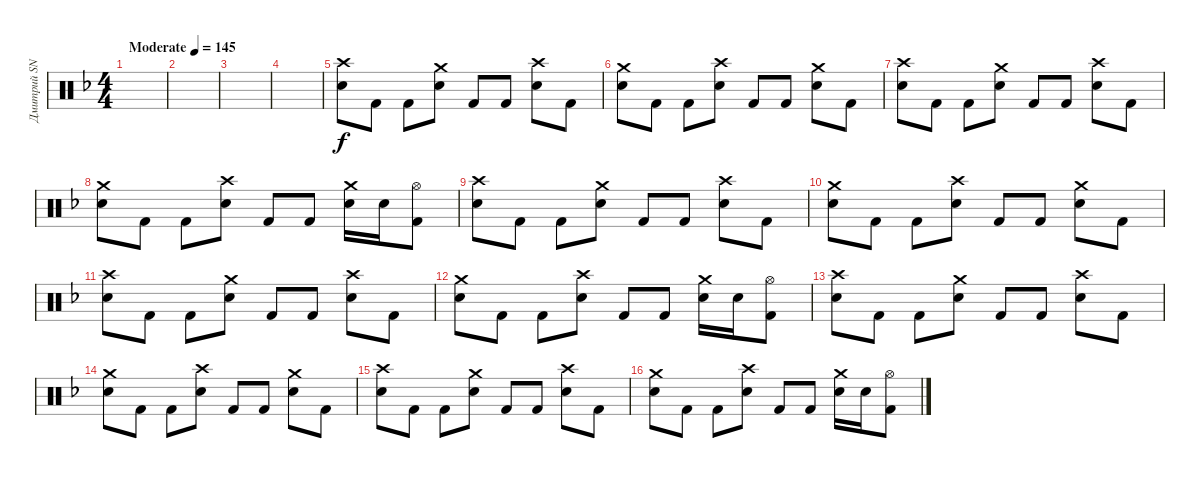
\track ("Дмитрий SNAKE Хакимов" "Дмитрий SN") {instrument percussion}
\staff {score}
\articulation defaults
\ts (4 4)
\tempo (145 "Moderate")
\clef neutral
\ks f
|
|
|
|
("Crash high (hit)" "Snare (hit) 2").8 "Kick (hit) 2".8 "Kick (hit) 2".8 ("Crash medium (hit)" "Snare (hit) 2").8 "Kick (hit) 2".8 "Kick (hit) 2".8 ("Crash high (hit)" "Snare (hit) 2").8 "Kick (hit) 2".8 |
("Crash medium (hit)" "Snare (hit) 2").8 "Kick (hit) 2".8 "Kick (hit) 2".8 ("Crash high (hit)" "Snare (hit) 2").8 "Kick (hit) 2".8 "Kick (hit) 2".8 ("Crash medium (hit)" "Snare (hit) 2").8 "Kick (hit) 2".8 |
("Crash high (hit)" "Snare (hit) 2").8 "Kick (hit) 2".8 "Kick (hit) 2".8 ("Crash medium (hit)" "Snare (hit) 2").8 "Kick (hit) 2".8 "Kick (hit) 2".8 ("Crash high (hit)" "Snare (hit) 2").8 "Kick (hit) 2".8 |
("Crash medium (hit)" "Snare (hit) 2").8 "Kick (hit) 2".8 "Kick (hit) 2".8 ("Crash high (hit)" "Snare (hit) 2").8 "Kick (hit) 2".8 "Kick (hit) 2".8 ("Crash medium (hit)" "Snare (hit) 2").16 "Snare (hit) 2".16 ("Hi-Hat (open)" "Kick (hit) 2").8 |
("Crash high (hit)" "Snare (hit) 2").8 "Kick (hit) 2".8 "Kick (hit) 2".8 ("Crash medium (hit)" "Snare (hit) 2").8 "Kick (hit) 2".8 "Kick (hit) 2".8 ("Crash high (hit)" "Snare (hit) 2").8 "Kick (hit) 2".8 |
("Crash medium (hit)" "Snare (hit) 2").8 "Kick (hit) 2".8 "Kick (hit) 2".8 ("Crash high (hit)" "Snare (hit) 2").8 "Kick (hit) 2".8 "Kick (hit) 2".8 ("Crash medium (hit)" "Snare (hit) 2").8 "Kick (hit) 2".8 |
("Crash high (hit)" "Snare (hit) 2").8 "Kick (hit) 2".8 "Kick (hit) 2".8 ("Crash medium (hit)" "Snare (hit) 2").8 "Kick (hit) 2".8 "Kick (hit) 2".8 ("Crash high (hit)" "Snare (hit) 2").8 "Kick (hit) 2".8 |
("Crash medium (hit)" "Snare (hit) 2").8 "Kick (hit) 2".8 "Kick (hit) 2".8 ("Crash high (hit)" "Snare (hit) 2").8 "Kick (hit) 2".8 "Kick (hit) 2".8 ("Crash medium (hit)" "Snare (hit) 2").16 "Snare (hit) 2".16 ("Hi-Hat (open)" "Kick (hit) 2").8 |
("Crash high (hit)" "Snare (hit) 2").8 "Kick (hit) 2".8 "Kick (hit) 2".8 ("Crash medium (hit)" "Snare (hit) 2").8 "Kick (hit) 2".8 "Kick (hit) 2".8 ("Crash high (hit)" "Snare (hit) 2").8 "Kick (hit) 2".8 |
("Crash medium (hit)" "Snare (hit) 2").8 "Kick (hit) 2".8 "Kick (hit) 2".8 ("Crash high (hit)" "Snare (hit) 2").8 "Kick (hit) 2".8 "Kick (hit) 2".8 ("Crash medium (hit)" "Snare (hit) 2").8 "Kick (hit) 2".8 |
("Crash high (hit)" "Snare (hit) 2").8 "Kick (hit) 2".8 "Kick (hit) 2".8 ("Crash medium (hit)" "Snare (hit) 2").8 "Kick (hit) 2".8 "Kick (hit) 2".8 ("Crash high (hit)" "Snare (hit) 2").8 "Kick (hit) 2".8 |
("Crash medium (hit)" "Snare (hit) 2").8 "Kick (hit) 2".8 "Kick (hit) 2".8 ("Crash high (hit)" "Snare (hit) 2").8 "Kick (hit) 2".8 "Kick (hit) 2".8 ("Crash medium (hit)" "Snare (hit) 2").16 "Snare (hit) 2".16 ("Hi-Hat (open)" "Kick (hit) 2").8
